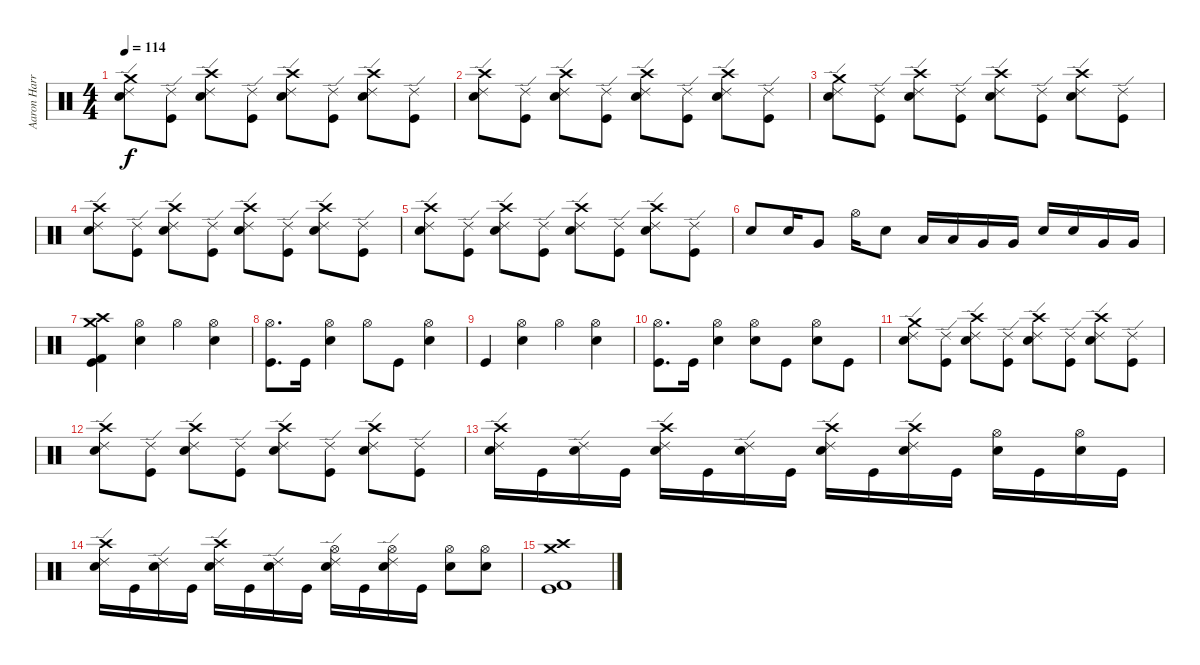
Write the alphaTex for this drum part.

\track ("Aaron Harris" "Aaron Harr") {instrument percussion}
\staff {score}
\articulation defaults
\ts (4 4)
\tempo 114
\clef neutral
\ks c
("Crash medium (hit)" "Ride (edge) 2" "Electric Snare (hit)").8{dy f} ("Ride (edge) 2" "Kick (hit)").8 ("Crash high (hit)" "Ride (edge) 2" "Electric Snare (hit)").8 ("Ride (edge) 2" "Kick (hit)").8 ("Crash high (hit)" "Ride (edge) 2" "Electric Snare (hit)").8 ("Ride (edge) 2" "Kick (hit)").8 ("Crash high (hit)" "Ride (edge) 2" "Electric Snare (hit)").8 ("Ride (edge) 2" "Kick (hit)").8 |
("Crash high (hit)" "Ride (edge) 2" "Electric Snare (hit)").8 ("Ride (edge) 2" "Kick (hit)").8 ("Crash high (hit)" "Ride (edge) 2" "Electric Snare (hit)").8 ("Ride (edge) 2" "Kick (hit)").8 ("Crash high (hit)" "Ride (edge) 2" "Electric Snare (hit)").8 ("Ride (edge) 2" "Kick (hit)").8 ("Crash high (hit)" "Ride (edge) 2" "Electric Snare (hit)").8 ("Ride (edge) 2" "Kick (hit)").8 |
("Crash medium (hit)" "Ride (edge) 2" "Electric Snare (hit)").8 ("Ride (edge) 2" "Kick (hit)").8 ("Crash high (hit)" "Ride (edge) 2" "Electric Snare (hit)").8 ("Ride (edge) 2" "Kick (hit)").8 ("Crash high (hit)" "Ride (edge) 2" "Electric Snare (hit)").8 ("Ride (edge) 2" "Kick (hit)").8 ("Crash high (hit)" "Ride (edge) 2" "Electric Snare (hit)").8 ("Ride (edge) 2" "Kick (hit)").8 |
("Crash high (hit)" "Ride (edge) 2" "Electric Snare (hit)").8 ("Ride (edge) 2" "Kick (hit)").8 ("Crash high (hit)" "Ride (edge) 2" "Electric Snare (hit)").8 ("Ride (edge) 2" "Kick (hit)").8 ("Crash high (hit)" "Ride (edge) 2" "Electric Snare (hit)").8 ("Ride (edge) 2" "Kick (hit)").8 ("Crash high (hit)" "Ride (edge) 2" "Electric Snare (hit)").8 ("Ride (edge) 2" "Kick (hit)").8 |
("Crash high (hit)" "Ride (edge) 2" "Electric Snare (hit)").8 ("Ride (edge) 2" "Kick (hit)").8 ("Crash high (hit)" "Ride (edge) 2" "Electric Snare (hit)").8 ("Ride (edge) 2" "Kick (hit)").8 ("Crash high (hit)" "Ride (edge) 2" "Electric Snare (hit)").8 ("Ride (edge) 2" "Kick (hit)").8 ("Crash high (hit)" "Ride (edge) 2" "Electric Snare (hit)").8 ("Ride (edge) 2" "Kick (hit)").8 |
"Electric Snare (hit)".8 "Electric Snare (hit)".16 "Very Low Tom (hit)".8 "Hi-Hat (open)".16 "Electric Snare (hit)".8 "Low Tom (hit)".16 "Low Tom (hit)".16 "Very Low Tom (hit)".16 "Very Low Tom (hit)".16 "Electric Snare (hit)".16 "Electric Snare (hit)".16 "Very Low Tom (hit)".16 "Very Low Tom (hit)".16 |
("Crash medium (hit)" "Crash high (hit)" "Kick (hit) 2" "Kick (hit)").4 ("Hi-Hat (open)" "Electric Snare (hit)").4 "Hi-Hat (open)".4 ("Hi-Hat (open)" "Electric Snare (hit)").4 |
("Hi-Hat (open)" "Kick (hit)").8{d} "Kick (hit)".16 ("Hi-Hat (open)" "Electric Snare (hit)").4 "Hi-Hat (open)".8 "Kick (hit)".8 ("Hi-Hat (open)" "Electric Snare (hit)").4 |
"Kick (hit)".4 ("Hi-Hat (open)" "Electric Snare (hit)").4 "Hi-Hat (open)".4 ("Hi-Hat (open)" "Electric Snare (hit)").4 |
("Hi-Hat (open)" "Kick (hit)").8{d} "Kick (hit)".16 ("Hi-Hat (open)" "Electric Snare (hit)").4 ("Hi-Hat (open)" "Electric Snare (hit)").8 "Kick (hit)".8 ("Hi-Hat (open)" "Electric Snare (hit)").8 "Kick (hit)".8 |
("Crash medium (hit)" "Ride (edge) 2" "Electric Snare (hit)").8 ("Ride (edge) 2" "Kick (hit)").8 ("Crash high (hit)" "Ride (edge) 2" "Electric Snare (hit)").8 ("Ride (edge) 2" "Kick (hit)").8 ("Crash high (hit)" "Ride (edge) 2" "Electric Snare (hit)").8 ("Ride (edge) 2" "Kick (hit)").8 ("Crash high (hit)" "Ride (edge) 2" "Electric Snare (hit)").8 ("Ride (edge) 2" "Kick (hit)").8 |
("Crash high (hit)" "Ride (edge) 2" "Electric Snare (hit)").8 ("Ride (edge) 2" "Kick (hit)").8 ("Crash high (hit)" "Ride (edge) 2" "Electric Snare (hit)").8 ("Ride (edge) 2" "Kick (hit)").8 ("Crash high (hit)" "Ride (edge) 2" "Electric Snare (hit)").8 ("Ride (edge) 2" "Kick (hit)").8 ("Crash high (hit)" "Ride (edge) 2" "Electric Snare (hit)").8 ("Ride (edge) 2" "Kick (hit)").8 |
("Crash high (hit)" "Ride (edge) 2" "Electric Snare (hit)").16 "Kick (hit)".16 ("Ride (edge) 2" "Electric Snare (hit)").16 "Kick (hit)".16 ("Crash high (hit)" "Ride (edge) 2" "Electric Snare (hit)").16 "Kick (hit)".16 ("Ride (edge) 2" "Electric Snare (hit)").16 "Kick (hit)".16 ("Crash high (hit)" "Ride (edge) 2" "Electric Snare (hit)").16 "Kick (hit)".16 ("Crash high (hit)" "Ride (edge) 2" "Electric Snare (hit)").16 "Kick (hit)".16 ("Hi-Hat (open)" "Electric Snare (hit)").16 "Kick (hit)".16 ("Hi-Hat (open)" "Electric Snare (hit)").16 "Kick (hit)".16 |
("Crash high (hit)" "Ride (edge) 2" "Electric Snare (hit)").16 "Kick (hit)".16 ("Ride (edge) 2" "Electric Snare (hit)").16 "Kick (hit)".16 ("Crash high (hit)" "Ride (edge) 2" "Electric Snare (hit)").16 "Kick (hit)".16 ("Ride (edge) 2" "Electric Snare (hit)").16 "Kick (hit)".16 ("Hi-Hat (open)" "Ride (edge) 2" "Electric Snare (hit)").16 "Kick (hit)".16 ("Hi-Hat (open)" "Ride (edge) 2" "Electric Snare (hit)").16 "Kick (hit)".16 ("Hi-Hat (open)" "Electric Snare (hit)").8 ("Hi-Hat (open)" "Electric Snare (hit)").8 |
("Crash medium (hit)" "Crash high (hit)" "Kick (hit) 2" "Kick (hit)").1
